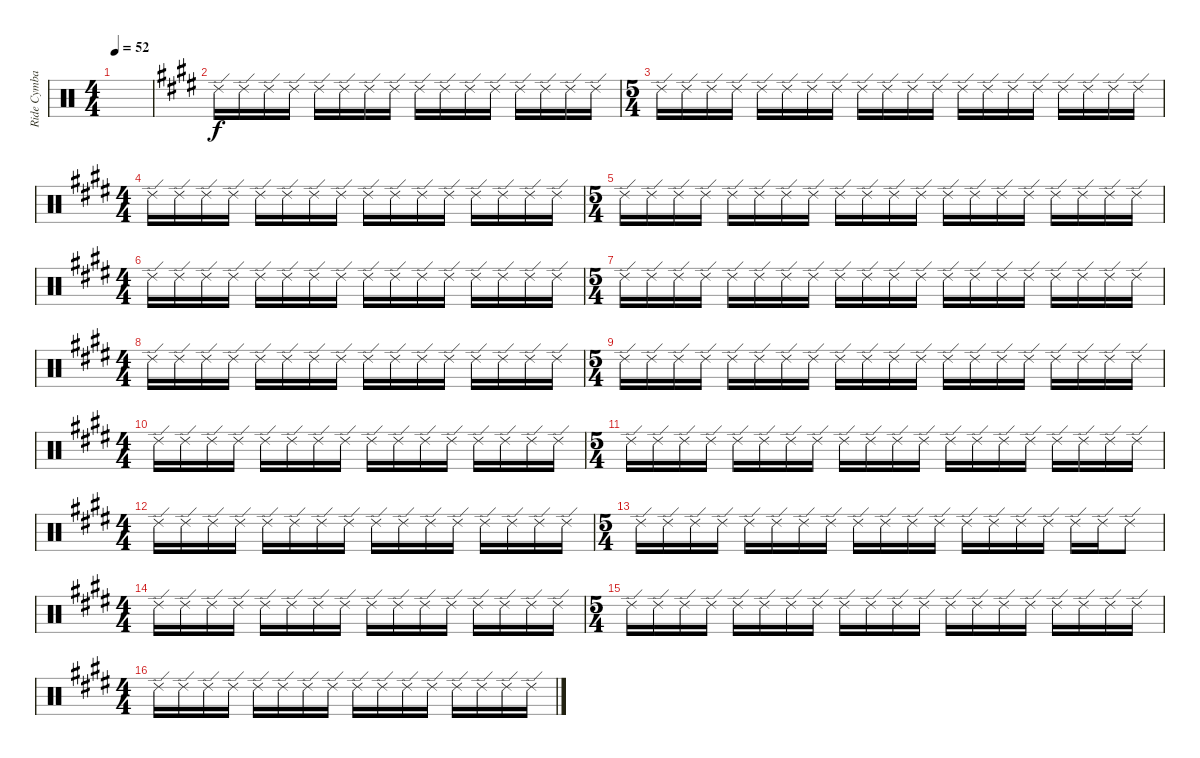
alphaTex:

\track ("Ride Cymbal" "Ride Cymba") {instrument percussion}
\staff {score}
\articulation defaults
\ts (4 4)
\tempo 52
\clef neutral
\ks c
|
\ks e "Ride (edge) 2".16 "Ride (edge) 2".16 "Ride (edge) 2".16 "Ride (edge) 2".16 "Ride (edge) 2".16 "Ride (edge) 2".16 "Ride (edge) 2".16 "Ride (edge) 2".16 "Ride (edge) 2".16 "Ride (edge) 2".16 "Ride (edge) 2".16 "Ride (edge) 2".16 "Ride (edge) 2".16 "Ride (edge) 2".16 "Ride (edge) 2".16 "Ride (edge) 2".16
|
\ts (5 4)
"Ride (edge) 2".16 "Ride (edge) 2".16 "Ride (edge) 2".16 "Ride (edge) 2".16 "Ride (edge) 2".16 "Ride (edge) 2".16 "Ride (edge) 2".16 "Ride (edge) 2".16 "Ride (edge) 2".16 "Ride (edge) 2".16 "Ride (edge) 2".16 "Ride (edge) 2".16 "Ride (edge) 2".16 "Ride (edge) 2".16 "Ride (edge) 2".16 "Ride (edge) 2".16 "Ride (edge) 2".16 "Ride (edge) 2".16 "Ride (edge) 2".16 "Ride (edge) 2".16 |
\ts (4 4)
"Ride (edge) 2".16 "Ride (edge) 2".16 "Ride (edge) 2".16 "Ride (edge) 2".16 "Ride (edge) 2".16 "Ride (edge) 2".16 "Ride (edge) 2".16 "Ride (edge) 2".16 "Ride (edge) 2".16 "Ride (edge) 2".16 "Ride (edge) 2".16 "Ride (edge) 2".16 "Ride (edge) 2".16 "Ride (edge) 2".16 "Ride (edge) 2".16 "Ride (edge) 2".16 |
\ts (5 4)
"Ride (edge) 2".16 "Ride (edge) 2".16 "Ride (edge) 2".16 "Ride (edge) 2".16 "Ride (edge) 2".16 "Ride (edge) 2".16 "Ride (edge) 2".16 "Ride (edge) 2".16 "Ride (edge) 2".16 "Ride (edge) 2".16 "Ride (edge) 2".16 "Ride (edge) 2".16 "Ride (edge) 2".16 "Ride (edge) 2".16 "Ride (edge) 2".16 "Ride (edge) 2".16 "Ride (edge) 2".16 "Ride (edge) 2".16 "Ride (edge) 2".16 "Ride (edge) 2".16 |
\ts (4 4)
"Ride (edge) 2".16 "Ride (edge) 2".16 "Ride (edge) 2".16 "Ride (edge) 2".16 "Ride (edge) 2".16 "Ride (edge) 2".16 "Ride (edge) 2".16 "Ride (edge) 2".16 "Ride (edge) 2".16 "Ride (edge) 2".16 "Ride (edge) 2".16 "Ride (edge) 2".16 "Ride (edge) 2".16 "Ride (edge) 2".16 "Ride (edge) 2".16 "Ride (edge) 2".16 |
\ts (5 4)
"Ride (edge) 2".16 "Ride (edge) 2".16 "Ride (edge) 2".16 "Ride (edge) 2".16 "Ride (edge) 2".16 "Ride (edge) 2".16 "Ride (edge) 2".16 "Ride (edge) 2".16 "Ride (edge) 2".16 "Ride (edge) 2".16 "Ride (edge) 2".16 "Ride (edge) 2".16 "Ride (edge) 2".16 "Ride (edge) 2".16 "Ride (edge) 2".16 "Ride (edge) 2".16 "Ride (edge) 2".16 "Ride (edge) 2".16 "Ride (edge) 2".16 "Ride (edge) 2".16 |
\ts (4 4)
"Ride (edge) 2".16 "Ride (edge) 2".16 "Ride (edge) 2".16 "Ride (edge) 2".16 "Ride (edge) 2".16 "Ride (edge) 2".16 "Ride (edge) 2".16 "Ride (edge) 2".16 "Ride (edge) 2".16 "Ride (edge) 2".16 "Ride (edge) 2".16 "Ride (edge) 2".16 "Ride (edge) 2".16 "Ride (edge) 2".16 "Ride (edge) 2".16 "Ride (edge) 2".16 |
\ts (5 4)
"Ride (edge) 2".16 "Ride (edge) 2".16 "Ride (edge) 2".16 "Ride (edge) 2".16 "Ride (edge) 2".16 "Ride (edge) 2".16 "Ride (edge) 2".16 "Ride (edge) 2".16 "Ride (edge) 2".16 "Ride (edge) 2".16 "Ride (edge) 2".16 "Ride (edge) 2".16 "Ride (edge) 2".16 "Ride (edge) 2".16 "Ride (edge) 2".16 "Ride (edge) 2".16 "Ride (edge) 2".16 "Ride (edge) 2".16 "Ride (edge) 2".16 "Ride (edge) 2".16 |
\ts (4 4)
"Ride (edge) 2".16 "Ride (edge) 2".16 "Ride (edge) 2".16 "Ride (edge) 2".16 "Ride (edge) 2".16 "Ride (edge) 2".16 "Ride (edge) 2".16 "Ride (edge) 2".16 "Ride (edge) 2".16 "Ride (edge) 2".16 "Ride (edge) 2".16 "Ride (edge) 2".16 "Ride (edge) 2".16 "Ride (edge) 2".16 "Ride (edge) 2".16 "Ride (edge) 2".16 |
\ts (5 4)
"Ride (edge) 2".16 "Ride (edge) 2".16 "Ride (edge) 2".16 "Ride (edge) 2".16 "Ride (edge) 2".16 "Ride (edge) 2".16 "Ride (edge) 2".16 "Ride (edge) 2".16 "Ride (edge) 2".16 "Ride (edge) 2".16 "Ride (edge) 2".16 "Ride (edge) 2".16 "Ride (edge) 2".16 "Ride (edge) 2".16 "Ride (edge) 2".16 "Ride (edge) 2".16 "Ride (edge) 2".16 "Ride (edge) 2".16 "Ride (edge) 2".16 "Ride (edge) 2".16 |
\ts (4 4)
"Ride (edge) 2".16 "Ride (edge) 2".16 "Ride (edge) 2".16 "Ride (edge) 2".16 "Ride (edge) 2".16 "Ride (edge) 2".16 "Ride (edge) 2".16 "Ride (edge) 2".16 "Ride (edge) 2".16 "Ride (edge) 2".16 "Ride (edge) 2".16 "Ride (edge) 2".16 "Ride (edge) 2".16 "Ride (edge) 2".16 "Ride (edge) 2".16 "Ride (edge) 2".16 |
\ts (5 4)
"Ride (edge) 2".16 "Ride (edge) 2".16 "Ride (edge) 2".16 "Ride (edge) 2".16 "Ride (edge) 2".16 "Ride (edge) 2".16 "Ride (edge) 2".16 "Ride (edge) 2".16 "Ride (edge) 2".16 "Ride (edge) 2".16 "Ride (edge) 2".16 "Ride (edge) 2".16 "Ride (edge) 2".16 "Ride (edge) 2".16 "Ride (edge) 2".16 "Ride (edge) 2".16 "Ride (edge) 2".16 "Ride (edge) 2".16 "Ride (edge) 2".8 |
\ts (4 4)
"Ride (edge) 2".16 "Ride (edge) 2".16 "Ride (edge) 2".16 "Ride (edge) 2".16 "Ride (edge) 2".16 "Ride (edge) 2".16 "Ride (edge) 2".16 "Ride (edge) 2".16 "Ride (edge) 2".16 "Ride (edge) 2".16 "Ride (edge) 2".16 "Ride (edge) 2".16 "Ride (edge) 2".16 "Ride (edge) 2".16 "Ride (edge) 2".16 "Ride (edge) 2".16 |
\ts (5 4)
"Ride (edge) 2".16 "Ride (edge) 2".16 "Ride (edge) 2".16 "Ride (edge) 2".16 "Ride (edge) 2".16 "Ride (edge) 2".16 "Ride (edge) 2".16 "Ride (edge) 2".16 "Ride (edge) 2".16 "Ride (edge) 2".16 "Ride (edge) 2".16 "Ride (edge) 2".16 "Ride (edge) 2".16 "Ride (edge) 2".16 "Ride (edge) 2".16 "Ride (edge) 2".16 "Ride (edge) 2".16 "Ride (edge) 2".16 "Ride (edge) 2".16 "Ride (edge) 2".16 |
\ts (4 4)
"Ride (edge) 2".16 "Ride (edge) 2".16 "Ride (edge) 2".16 "Ride (edge) 2".16 "Ride (edge) 2".16 "Ride (edge) 2".16 "Ride (edge) 2".16 "Ride (edge) 2".16 "Ride (edge) 2".16 "Ride (edge) 2".16 "Ride (edge) 2".16 "Ride (edge) 2".16 "Ride (edge) 2".16 "Ride (edge) 2".16 "Ride (edge) 2".16 "Ride (edge) 2".16
